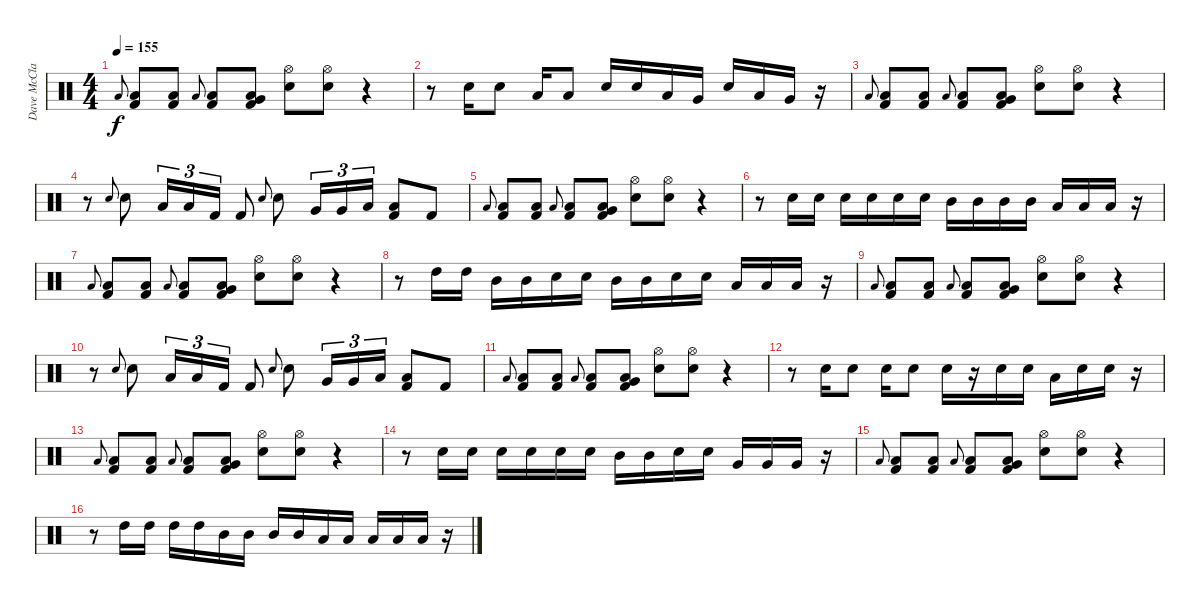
\track ("Dave McClain (Drums)" "Dave McCla") {instrument percussion}
\staff {score}
\articulation defaults
\ts (4 4)
\tempo 155
\clef neutral
\ks c "Low Floor Tom (hit)".8{gr onbeat dy f}
("Low Floor Tom (hit)" "Kick (hit) 2").8 ("Low Floor Tom (hit)" "Kick (hit) 2").8 "Low Floor Tom (hit)".8{gr onbeat} ("Low Floor Tom (hit)" "Kick (hit) 2").8 ("Low Floor Tom (hit)" "Very Low Tom (hit)" "Kick (hit) 2").8 ("Hi-Hat (open)" "Electric Snare (hit)").8 ("Hi-Hat (open)" "Electric Snare (hit)").8 r.4 |
r.8 "Electric Snare (hit)".16 "Electric Snare (hit)".8 "Low Tom (hit)".16 "Low Tom (hit)".8 "Electric Snare (hit)".16 "Electric Snare (hit)".16 "Low Tom (hit)".16 "Very Low Tom (hit)".16 "Electric Snare (hit)".16 "Low Tom (hit)".16 "Very Low Tom (hit)".16 r.16 |
"Low Floor Tom (hit)".8{gr onbeat} ("Low Floor Tom (hit)" "Kick (hit) 2").8 ("Low Floor Tom (hit)" "Kick (hit) 2").8 "Low Floor Tom (hit)".8{gr onbeat} ("Low Floor Tom (hit)" "Kick (hit) 2").8 ("Low Floor Tom (hit)" "Very Low Tom (hit)" "Kick (hit) 2").8 ("Hi-Hat (open)" "Electric Snare (hit)").8 ("Hi-Hat (open)" "Electric Snare (hit)").8 r.4 |
r.8 "Electric Snare (hit)".8{gr onbeat} "Electric Snare (hit)".8 "Low Floor Tom (hit)".16{tu (3 2)} "Low Floor Tom (hit)".16{tu (3 2)} "Kick (hit) 2".16{tu (3 2)} "Kick (hit) 2".8 "Electric Snare (hit)".8{gr onbeat} "Electric Snare (hit)".8 "Very Low Tom (hit)".16{tu (3 2)} "Very Low Tom (hit)".16{tu (3 2)} "Low Floor Tom (hit)".16{tu (3 2)} ("Low Floor Tom (hit)" "Kick (hit) 2").8 "Kick (hit) 2".8 |
"Low Floor Tom (hit)".8{gr onbeat} ("Low Floor Tom (hit)" "Kick (hit) 2").8 ("Low Floor Tom (hit)" "Kick (hit) 2").8 "Low Floor Tom (hit)".8{gr onbeat} ("Low Floor Tom (hit)" "Kick (hit) 2").8 ("Low Floor Tom (hit)" "Very Low Tom (hit)" "Kick (hit) 2").8 ("Hi-Hat (open)" "Electric Snare (hit)").8 ("Hi-Hat (open)" "Electric Snare (hit)").8 r.4 |
r.8 "Electric Snare (hit)".16 "Electric Snare (hit)".16 "Electric Snare (hit)".16 "Electric Snare (hit)".16 "Electric Snare (hit)".16 "Electric Snare (hit)".16 "Mid Tom (hit)".16 "Mid Tom (hit)".16 "Mid Tom (hit)".16 "Mid Tom (hit)".16 "Low Tom (hit)".16 "Low Tom (hit)".16 "Low Tom (hit)".16 r.16 |
"Low Floor Tom (hit)".8{gr onbeat} ("Low Floor Tom (hit)" "Kick (hit) 2").8 ("Low Floor Tom (hit)" "Kick (hit) 2").8 "Low Floor Tom (hit)".8{gr onbeat} ("Low Floor Tom (hit)" "Kick (hit) 2").8 ("Low Floor Tom (hit)" "Very Low Tom (hit)" "Kick (hit) 2").8 ("Hi-Hat (open)" "Electric Snare (hit)").8 ("Hi-Hat (open)" "Electric Snare (hit)").8 r.4 |
r.8 "High Tom (hit)".16 "High Tom (hit)".16 "Mid Tom (hit)".16 "Mid Tom (hit)".16 "Electric Snare (hit)".16 "Electric Snare (hit)".16 "Mid Tom (hit)".16 "Mid Tom (hit)".16 "Electric Snare (hit)".16 "Electric Snare (hit)".16 "Low Tom (hit)".16 "Low Tom (hit)".16 "Low Tom (hit)".16 r.16 |
"Low Floor Tom (hit)".8{gr onbeat} ("Low Floor Tom (hit)" "Kick (hit) 2").8 ("Low Floor Tom (hit)" "Kick (hit) 2").8 "Low Floor Tom (hit)".8{gr onbeat} ("Low Floor Tom (hit)" "Kick (hit) 2").8 ("Low Floor Tom (hit)" "Very Low Tom (hit)" "Kick (hit) 2").8 ("Hi-Hat (open)" "Electric Snare (hit)").8 ("Hi-Hat (open)" "Electric Snare (hit)").8 r.4 |
r.8 "Electric Snare (hit)".8{gr onbeat} "Electric Snare (hit)".8 "Low Floor Tom (hit)".16{tu (3 2)} "Low Floor Tom (hit)".16{tu (3 2)} "Kick (hit) 2".16{tu (3 2)} "Kick (hit) 2".8 "Electric Snare (hit)".8{gr onbeat} "Electric Snare (hit)".8 "Very Low Tom (hit)".16{tu (3 2)} "Very Low Tom (hit)".16{tu (3 2)} "Low Floor Tom (hit)".16{tu (3 2)} ("Low Floor Tom (hit)" "Kick (hit) 2").8 "Kick (hit) 2".8 |
"Low Floor Tom (hit)".8{gr onbeat} ("Low Floor Tom (hit)" "Kick (hit) 2").8 ("Low Floor Tom (hit)" "Kick (hit) 2").8 "Low Floor Tom (hit)".8{gr onbeat} ("Low Floor Tom (hit)" "Kick (hit) 2").8 ("Low Floor Tom (hit)" "Very Low Tom (hit)" "Kick (hit) 2").8 ("Hi-Hat (open)" "Electric Snare (hit)").8 ("Hi-Hat (open)" "Electric Snare (hit)").8 r.4 |
r.8 "Electric Snare (hit)".16 "Electric Snare (hit)".8 "Electric Snare (hit)".16 "Electric Snare (hit)".8 "Electric Snare (hit)".16 r.16 "Electric Snare (hit)".16 "Electric Snare (hit)".16 "Low Tom (hit)".16 "Electric Snare (hit)".16 "Electric Snare (hit)".16 r.16 |
"Low Floor Tom (hit)".8{gr onbeat} ("Low Floor Tom (hit)" "Kick (hit) 2").8 ("Low Floor Tom (hit)" "Kick (hit) 2").8 "Low Floor Tom (hit)".8{gr onbeat} ("Low Floor Tom (hit)" "Kick (hit) 2").8 ("Low Floor Tom (hit)" "Very Low Tom (hit)" "Kick (hit) 2").8 ("Hi-Hat (open)" "Electric Snare (hit)").8 ("Hi-Hat (open)" "Electric Snare (hit)").8 r.4 |
r.8 "Electric Snare (hit)".16 "Electric Snare (hit)".16 "Electric Snare (hit)".16 "Electric Snare (hit)".16 "Electric Snare (hit)".16 "Electric Snare (hit)".16 "Mid Tom (hit)".16 "Mid Tom (hit)".16 "Electric Snare (hit)".16 "Electric Snare (hit)".16 "Very Low Tom (hit)".16 "Very Low Tom (hit)".16 "Very Low Tom (hit)".16 r.16 |
"Low Floor Tom (hit)".8{gr onbeat} ("Low Floor Tom (hit)" "Kick (hit) 2").8 ("Low Floor Tom (hit)" "Kick (hit) 2").8 "Low Floor Tom (hit)".8{gr onbeat} ("Low Floor Tom (hit)" "Kick (hit) 2").8 ("Low Floor Tom (hit)" "Very Low Tom (hit)" "Kick (hit) 2").8 ("Hi-Hat (open)" "Electric Snare (hit)").8 ("Hi-Hat (open)" "Electric Snare (hit)").8 r.4 |
r.8 "High Tom (hit)".16 "High Tom (hit)".16 "High Tom (hit)".16 "High Tom (hit)".16 "Mid Tom (hit)".16 "Mid Tom (hit)".16 "Mid Tom (hit)".16 "Mid Tom (hit)".16 "Low Tom (hit)".16 "Low Tom (hit)".16 "Low Tom (hit)".16 "Low Tom (hit)".16 "Low Tom (hit)".16 r.16
